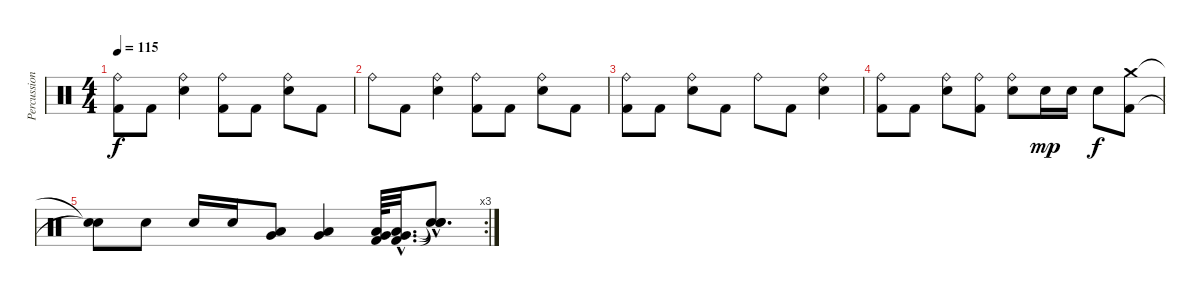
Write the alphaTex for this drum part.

\track ("Percussion" "Percussion") {instrument percussion}
\staff {score}
\articulation defaults
\ts (4 4)
\tempo 115
\clef neutral
\ks c
("Ride (bell)" "Kick (hit) 2").8{dy f} "Kick (hit) 2".8 ("Ride (bell)" "Metronome (bell)").4 ("Ride (bell)" "Kick (hit) 2").8 "Kick (hit) 2".8 ("Ride (bell)" "Metronome (bell)").8 "Kick (hit) 2".8 |
"Ride (bell)".8 "Kick (hit) 2".8 ("Ride (bell)" "Metronome (bell)").4 ("Ride (bell)" "Kick (hit) 2").8 "Kick (hit) 2".8 ("Ride (bell)" "Metronome (bell)").8 "Kick (hit) 2".8 |
("Ride (bell)" "Kick (hit) 2").8 "Kick (hit) 2".8 ("Ride (bell)" "Metronome (bell)").8 "Kick (hit) 2".8 "Ride (bell)".8 "Kick (hit) 2".8 ("Ride (bell)" "Metronome (bell)").4 |
("Ride (bell)" "Kick (hit) 2").8 "Kick (hit) 2".8 ("Ride (bell)" "Metronome (bell)").8 ("Ride (bell)" "Kick (hit) 2").8 ("Ride (bell)" "Metronome (bell)").8 "Metronome (bell)".16{dy mp} "Metronome (bell)".16 "Metronome (bell)".8{dy f} ("Crash medium (hit)" "Kick (hit) 2").8 |
\rc 3
("Snare (hit)"{t} "Snare (hit)"{t}).8 "Metronome (bell)".8 "Metronome (bell)".16 "Metronome (bell)".16 ("Low Tom (hit)" "Very Low Tom (hit)").8 ("Very Low Tom (hit)" "Low Floor Tom (hit)").4 ("Very Low Tom (hit)" "Low Floor Tom (hit)" "Kick (hit) 2").64 ("Very Low Tom (hit)"{hac} "Low Floor Tom (hit)"{hac} "Kick (hit) 2"{hac}).32{d} ("Snare (hit)"{hac t} "Snare (hit)"{hac t} "Snare (hit)"{hac t}).8{d}
